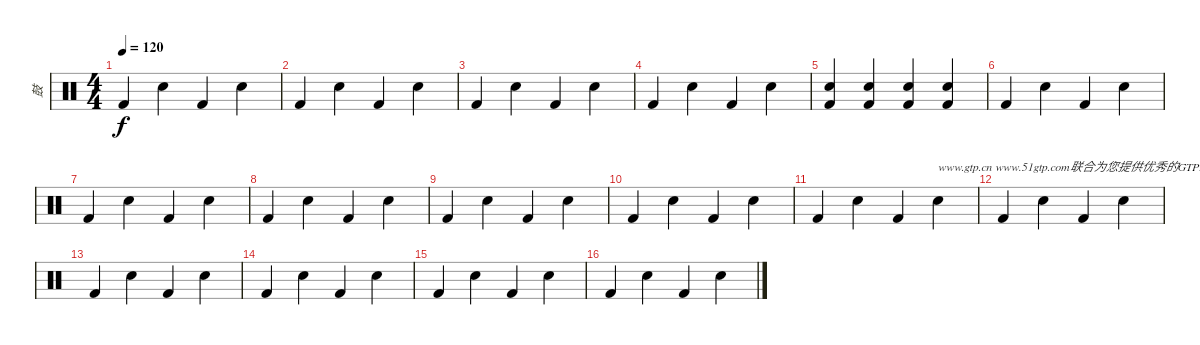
\track ("鼓" "鼓") {instrument percussion}
\staff {score}
\articulation defaults
\ts (4 4)
\tempo 120
\clef neutral
\ks c "Kick (hit) 2".4{dy f} "Electric Snare (hit)".4 "Kick (hit) 2".4 "Electric Snare (hit)".4
|
"Kick (hit) 2".4 "Electric Snare (hit)".4 "Kick (hit) 2".4 "Electric Snare (hit)".4 |
"Kick (hit) 2".4 "Electric Snare (hit)".4 "Kick (hit) 2".4 "Electric Snare (hit)".4 |
"Kick (hit) 2".4 "Electric Snare (hit)".4 "Kick (hit) 2".4 "Electric Snare (hit)".4 |
("Electric Snare (hit)" "Kick (hit) 2").4 ("Kick (hit) 2" "Electric Snare (hit)").4 ("Electric Snare (hit)" "Kick (hit) 2").4 ("Kick (hit) 2" "Electric Snare (hit)").4 |
"Kick (hit) 2".4 "Electric Snare (hit)".4 "Kick (hit) 2".4 "Electric Snare (hit)".4 |
"Kick (hit) 2".4 "Electric Snare (hit)".4 "Kick (hit) 2".4 "Electric Snare (hit)".4 |
"Kick (hit) 2".4 "Electric Snare (hit)".4 "Kick (hit) 2".4 "Electric Snare (hit)".4 |
"Kick (hit) 2".4 "Electric Snare (hit)".4 "Kick (hit) 2".4 "Electric Snare (hit)".4 |
"Kick (hit) 2".4 "Electric Snare (hit)".4 "Kick (hit) 2".4 "Electric Snare (hit)".4 |
"Kick (hit) 2".4 "Electric Snare (hit)".4 "Kick (hit) 2".4 "Electric Snare (hit)".4{txt "www.gtp.cn www.51gtp.com联合为您提供优秀的GTP!"} |
"Kick (hit) 2".4 "Electric Snare (hit)".4 "Kick (hit) 2".4 "Electric Snare (hit)".4 |
"Kick (hit) 2".4 "Electric Snare (hit)".4 "Kick (hit) 2".4 "Electric Snare (hit)".4 |
"Kick (hit) 2".4 "Electric Snare (hit)".4 "Kick (hit) 2".4 "Electric Snare (hit)".4 |
"Kick (hit) 2".4 "Electric Snare (hit)".4 "Kick (hit) 2".4 "Electric Snare (hit)".4 |
"Kick (hit) 2".4 "Electric Snare (hit)".4 "Kick (hit) 2".4 "Electric Snare (hit)".4
